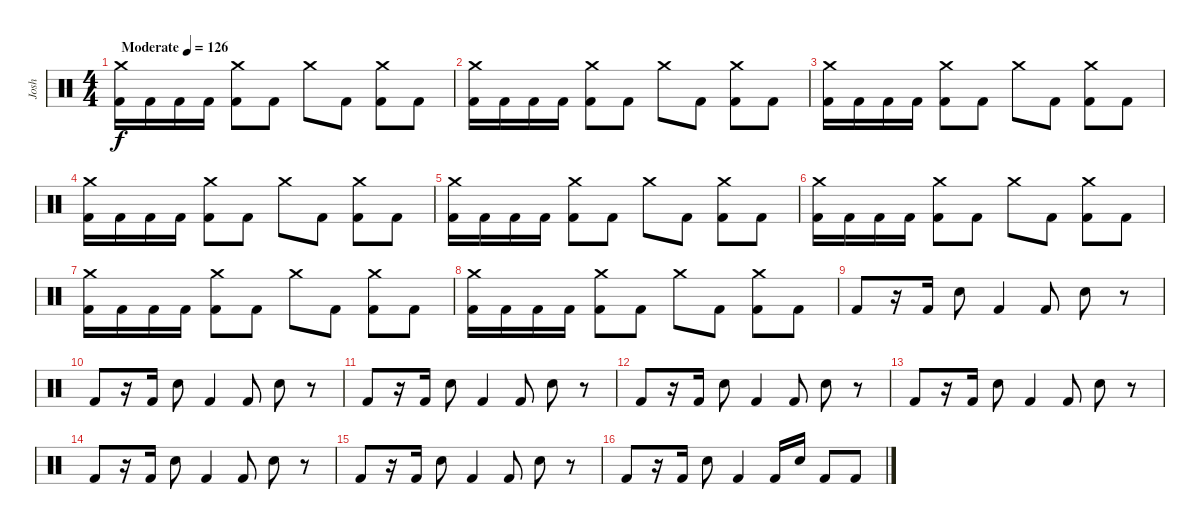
\track ("Josh" "Josh") {instrument percussion}
\staff {score}
\articulation defaults
\ts (4 4)
\tempo (126 "Moderate")
\clef neutral
\ks c
("Crash medium (hit)" "Kick (hit) 2").16{dy f} "Kick (hit) 2".16 "Kick (hit) 2".16 "Kick (hit) 2".16 ("Crash medium (hit)" "Kick (hit) 2").8 "Kick (hit) 2".8 "Crash medium (hit)".8 "Kick (hit) 2".8 ("Crash medium (hit)" "Kick (hit) 2").8 "Kick (hit) 2".8 |
("Crash medium (hit)" "Kick (hit) 2").16 "Kick (hit) 2".16 "Kick (hit) 2".16 "Kick (hit) 2".16 ("Crash medium (hit)" "Kick (hit) 2").8 "Kick (hit) 2".8 "Crash medium (hit)".8 "Kick (hit) 2".8 ("Crash medium (hit)" "Kick (hit) 2").8 "Kick (hit) 2".8 |
("Crash medium (hit)" "Kick (hit) 2").16 "Kick (hit) 2".16 "Kick (hit) 2".16 "Kick (hit) 2".16 ("Crash medium (hit)" "Kick (hit) 2").8 "Kick (hit) 2".8 "Crash medium (hit)".8 "Kick (hit) 2".8 ("Crash medium (hit)" "Kick (hit) 2").8 "Kick (hit) 2".8 |
("Crash medium (hit)" "Kick (hit) 2").16 "Kick (hit) 2".16 "Kick (hit) 2".16 "Kick (hit) 2".16 ("Crash medium (hit)" "Kick (hit) 2").8 "Kick (hit) 2".8 "Crash medium (hit)".8 "Kick (hit) 2".8 ("Crash medium (hit)" "Kick (hit) 2").8 "Kick (hit) 2".8 |
("Crash medium (hit)" "Kick (hit) 2").16 "Kick (hit) 2".16 "Kick (hit) 2".16 "Kick (hit) 2".16 ("Crash medium (hit)" "Kick (hit) 2").8 "Kick (hit) 2".8 "Crash medium (hit)".8 "Kick (hit) 2".8 ("Crash medium (hit)" "Kick (hit) 2").8 "Kick (hit) 2".8 |
("Crash medium (hit)" "Kick (hit) 2").16 "Kick (hit) 2".16 "Kick (hit) 2".16 "Kick (hit) 2".16 ("Crash medium (hit)" "Kick (hit) 2").8 "Kick (hit) 2".8 "Crash medium (hit)".8 "Kick (hit) 2".8 ("Crash medium (hit)" "Kick (hit) 2").8 "Kick (hit) 2".8 |
("Crash medium (hit)" "Kick (hit) 2").16 "Kick (hit) 2".16 "Kick (hit) 2".16 "Kick (hit) 2".16 ("Crash medium (hit)" "Kick (hit) 2").8 "Kick (hit) 2".8 "Crash medium (hit)".8 "Kick (hit) 2".8 ("Crash medium (hit)" "Kick (hit) 2").8 "Kick (hit) 2".8 |
("Crash medium (hit)" "Kick (hit) 2").16 "Kick (hit) 2".16 "Kick (hit) 2".16 "Kick (hit) 2".16 ("Crash medium (hit)" "Kick (hit) 2").8 "Kick (hit) 2".8 "Crash medium (hit)".8 "Kick (hit) 2".8 ("Crash medium (hit)" "Kick (hit) 2").8 "Kick (hit) 2".8 |
"Kick (hit) 2".8 r.16 "Kick (hit) 2".16 "Snare (hit) 2".8 "Kick (hit) 2".4 "Kick (hit) 2".8 "Snare (hit) 2".8 r.8 |
"Kick (hit) 2".8 r.16 "Kick (hit) 2".16 "Snare (hit) 2".8 "Kick (hit) 2".4 "Kick (hit) 2".8 "Snare (hit) 2".8 r.8 |
"Kick (hit) 2".8 r.16 "Kick (hit) 2".16 "Snare (hit) 2".8 "Kick (hit) 2".4 "Kick (hit) 2".8 "Snare (hit) 2".8 r.8 |
"Kick (hit) 2".8 r.16 "Kick (hit) 2".16 "Snare (hit) 2".8 "Kick (hit) 2".4 "Kick (hit) 2".8 "Snare (hit) 2".8 r.8 |
"Kick (hit) 2".8 r.16 "Kick (hit) 2".16 "Snare (hit) 2".8 "Kick (hit) 2".4 "Kick (hit) 2".8 "Snare (hit) 2".8 r.8 |
"Kick (hit) 2".8 r.16 "Kick (hit) 2".16 "Snare (hit) 2".8 "Kick (hit) 2".4 "Kick (hit) 2".8 "Snare (hit) 2".8 r.8 |
"Kick (hit) 2".8 r.16 "Kick (hit) 2".16 "Snare (hit) 2".8 "Kick (hit) 2".4 "Kick (hit) 2".8 "Snare (hit) 2".8 r.8 |
"Kick (hit) 2".8 r.16 "Kick (hit) 2".16 "Snare (hit) 2".8 "Kick (hit) 2".4 "Kick (hit) 2".16 "Snare (hit) 2".16 "Kick (hit) 2".8 "Kick (hit) 2".8
